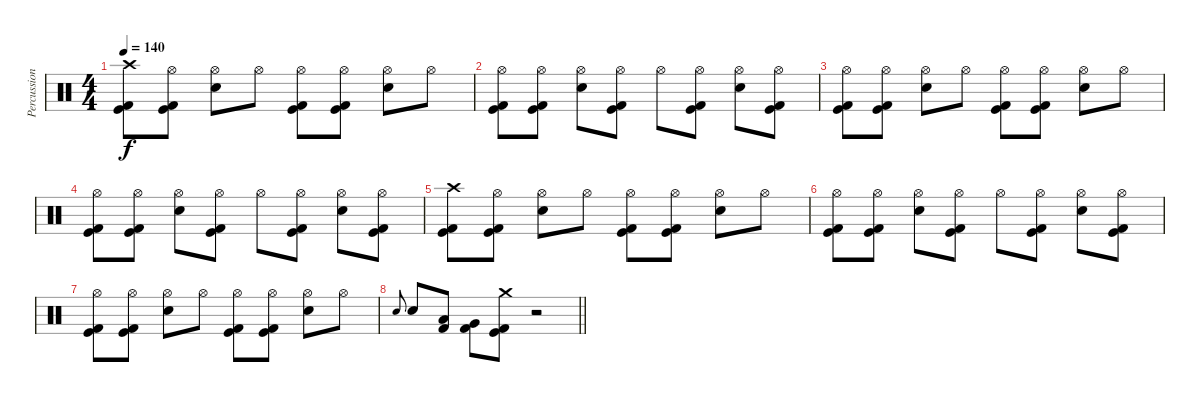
\track ("Percussion" "Percussion") {instrument percussion}
\staff {score}
\articulation defaults
\ts (4 4)
\section ("" "")
\tempo 140
\clef neutral
\ks c
("Crash high (hit)" "Kick (hit)" "Kick (hit) 2").8{dy f} ("Hi-Hat (open)" "Kick (hit)" "Kick (hit) 2").8 ("Hi-Hat (open)" "Electric Snare (hit)").8 "Hi-Hat (open)".8 ("Hi-Hat (open)" "Kick (hit)" "Kick (hit) 2").8 ("Hi-Hat (open)" "Kick (hit)" "Kick (hit) 2").8 ("Hi-Hat (open)" "Electric Snare (hit)").8 "Hi-Hat (open)".8 |
("Hi-Hat (open)" "Kick (hit)" "Kick (hit) 2").8 ("Hi-Hat (open)" "Kick (hit)" "Kick (hit) 2").8 ("Hi-Hat (open)" "Electric Snare (hit)").8 ("Hi-Hat (open)" "Kick (hit)" "Kick (hit) 2").8 "Hi-Hat (open)".8 ("Hi-Hat (open)" "Kick (hit)" "Kick (hit) 2").8 ("Hi-Hat (open)" "Electric Snare (hit)").8 ("Hi-Hat (open)" "Kick (hit)" "Kick (hit) 2").8 |
("Hi-Hat (open)" "Kick (hit)" "Kick (hit) 2").8 ("Hi-Hat (open)" "Kick (hit)" "Kick (hit) 2").8 ("Hi-Hat (open)" "Electric Snare (hit)").8 "Hi-Hat (open)".8 ("Hi-Hat (open)" "Kick (hit)" "Kick (hit) 2").8 ("Hi-Hat (open)" "Kick (hit)" "Kick (hit) 2").8 ("Hi-Hat (open)" "Electric Snare (hit)").8 "Hi-Hat (open)".8 |
("Hi-Hat (open)" "Kick (hit)" "Kick (hit) 2").8 ("Hi-Hat (open)" "Kick (hit)" "Kick (hit) 2").8 ("Hi-Hat (open)" "Electric Snare (hit)").8 ("Hi-Hat (open)" "Kick (hit)" "Kick (hit) 2").8 "Hi-Hat (open)".8 ("Hi-Hat (open)" "Kick (hit)" "Kick (hit) 2").8 ("Hi-Hat (open)" "Electric Snare (hit)").8 ("Hi-Hat (open)" "Kick (hit)" "Kick (hit) 2").8 |
("Crash high (hit)" "Kick (hit)" "Kick (hit) 2").8 ("Hi-Hat (open)" "Kick (hit)" "Kick (hit) 2").8 ("Hi-Hat (open)" "Electric Snare (hit)").8 "Hi-Hat (open)".8 ("Hi-Hat (open)" "Kick (hit)" "Kick (hit) 2").8 ("Hi-Hat (open)" "Kick (hit)" "Kick (hit) 2").8 ("Hi-Hat (open)" "Electric Snare (hit)").8 "Hi-Hat (open)".8 |
("Hi-Hat (open)" "Kick (hit)" "Kick (hit) 2").8 ("Hi-Hat (open)" "Kick (hit)" "Kick (hit) 2").8 ("Hi-Hat (open)" "Electric Snare (hit)").8 ("Hi-Hat (open)" "Kick (hit)" "Kick (hit) 2").8 "Hi-Hat (open)".8 ("Hi-Hat (open)" "Kick (hit)" "Kick (hit) 2").8 ("Hi-Hat (open)" "Electric Snare (hit)").8 ("Hi-Hat (open)" "Kick (hit)" "Kick (hit) 2").8 |
("Hi-Hat (open)" "Kick (hit)" "Kick (hit) 2").8 ("Hi-Hat (open)" "Kick (hit)" "Kick (hit) 2").8 ("Hi-Hat (open)" "Electric Snare (hit)").8 "Hi-Hat (open)".8 ("Hi-Hat (open)" "Kick (hit)" "Kick (hit) 2").8 ("Hi-Hat (open)" "Kick (hit)" "Kick (hit) 2").8 ("Hi-Hat (open)" "Electric Snare (hit)").8 "Hi-Hat (open)".8 |
\barLineRight lightlight "Electric Snare (hit)".8{gr onbeat} "Electric Snare (hit)".8
("Kick (hit) 2" "Low Tom (hit)").8 ("Kick (hit) 2" "Very Low Tom (hit)").8 ("Crash medium (hit)" "Kick (hit)" "Kick (hit) 2").8 r.2
